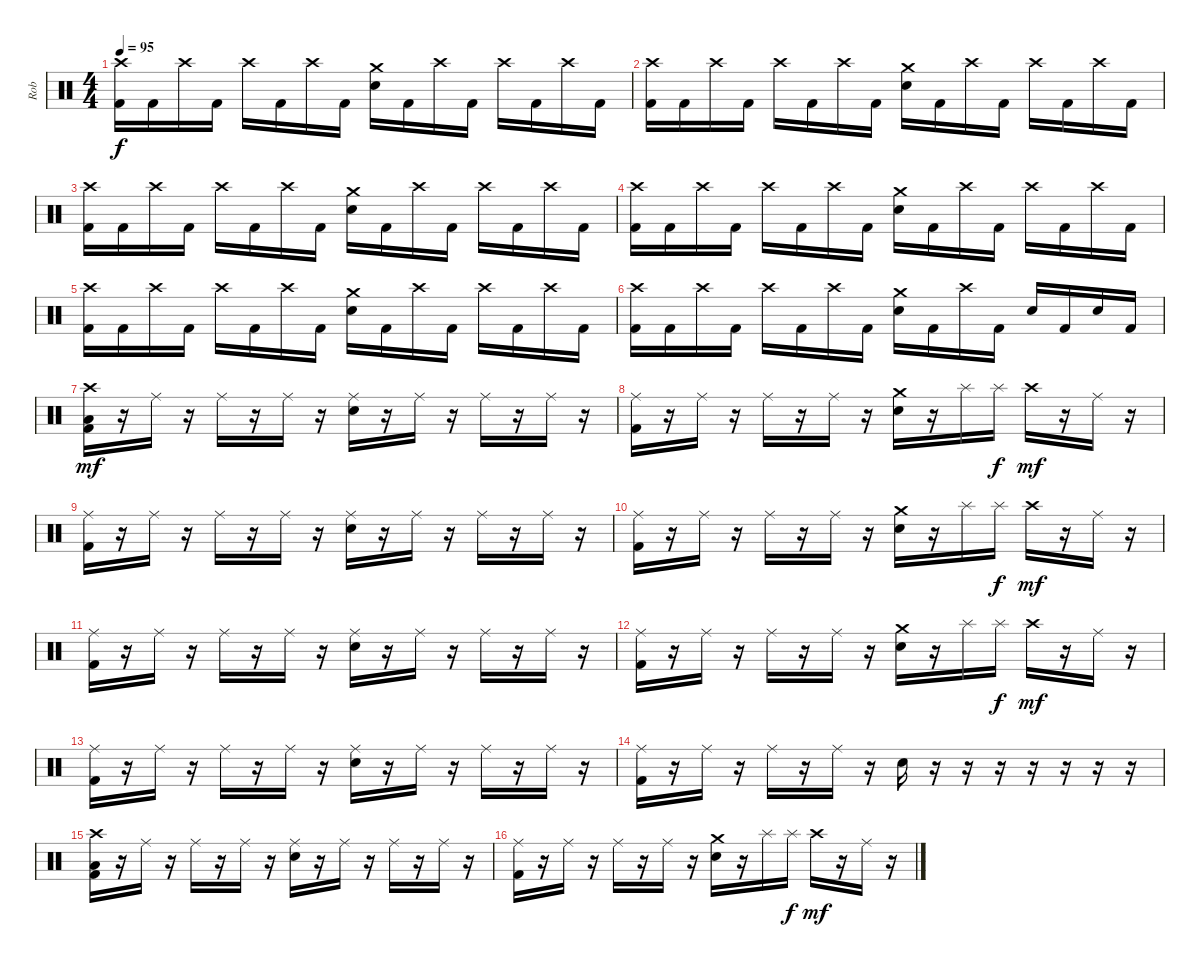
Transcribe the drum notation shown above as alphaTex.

\track ("Rob" "Rob") {instrument percussion}
\staff {score}
\articulation defaults
\ts (4 4)
\tempo 95
\clef neutral
\ks c
("Crash high (hit)" "Kick (hit) 2").16{dy f} "Kick (hit) 2".16 "Crash high (hit)".16 "Kick (hit) 2".16 "Crash high (hit)".16 "Kick (hit) 2".16 "Crash high (hit)".16 "Kick (hit) 2".16 ("Crash medium (hit)" "Electric Snare (hit)").16 "Kick (hit) 2".16 "Crash high (hit)".16 "Kick (hit) 2".16 "Crash high (hit)".16 "Kick (hit) 2".16 "Crash high (hit)".16 "Kick (hit) 2".16 |
("Crash high (hit)" "Kick (hit) 2").16 "Kick (hit) 2".16 "Crash high (hit)".16 "Kick (hit) 2".16 "Crash high (hit)".16 "Kick (hit) 2".16 "Crash high (hit)".16 "Kick (hit) 2".16 ("Crash medium (hit)" "Electric Snare (hit)").16 "Kick (hit) 2".16 "Crash high (hit)".16 "Kick (hit) 2".16 "Crash high (hit)".16 "Kick (hit) 2".16 "Crash high (hit)".16 "Kick (hit) 2".16 |
("Crash high (hit)" "Kick (hit) 2").16 "Kick (hit) 2".16 "Crash high (hit)".16 "Kick (hit) 2".16 "Crash high (hit)".16 "Kick (hit) 2".16 "Crash high (hit)".16 "Kick (hit) 2".16 ("Crash medium (hit)" "Electric Snare (hit)").16 "Kick (hit) 2".16 "Crash high (hit)".16 "Kick (hit) 2".16 "Crash high (hit)".16 "Kick (hit) 2".16 "Crash high (hit)".16 "Kick (hit) 2".16 |
("Crash high (hit)" "Kick (hit) 2").16 "Kick (hit) 2".16 "Crash high (hit)".16 "Kick (hit) 2".16 "Crash high (hit)".16 "Kick (hit) 2".16 "Crash high (hit)".16 "Kick (hit) 2".16 ("Crash medium (hit)" "Electric Snare (hit)").16 "Kick (hit) 2".16 "Crash high (hit)".16 "Kick (hit) 2".16 "Crash high (hit)".16 "Kick (hit) 2".16 "Crash high (hit)".16 "Kick (hit) 2".16 |
("Crash high (hit)" "Kick (hit) 2").16 "Kick (hit) 2".16 "Crash high (hit)".16 "Kick (hit) 2".16 "Crash high (hit)".16 "Kick (hit) 2".16 "Crash high (hit)".16 "Kick (hit) 2".16 ("Crash medium (hit)" "Electric Snare (hit)").16 "Kick (hit) 2".16 "Crash high (hit)".16 "Kick (hit) 2".16 "Crash high (hit)".16 "Kick (hit) 2".16 "Crash high (hit)".16 "Kick (hit) 2".16 |
("Crash high (hit)" "Kick (hit) 2").16 "Kick (hit) 2".16 "Crash high (hit)".16 "Kick (hit) 2".16 "Crash high (hit)".16 "Kick (hit) 2".16 "Crash high (hit)".16 "Kick (hit) 2".16 ("Crash medium (hit)" "Electric Snare (hit)").16 "Kick (hit) 2".16 "Crash high (hit)".16 "Kick (hit) 2".16 "Electric Snare (hit)".16 "Kick (hit) 2".16 "Electric Snare (hit)".16 "Kick (hit) 2".16 |
("Crash high (hit)" "Low Tom (hit)" "Kick (hit) 2").16{dy mf} r.16 "Ride (middle)".16 r.16 "Ride (middle)".16 r.16 "Ride (middle)".16 r.16 ("Ride (middle)" "Electric Snare (hit)").16 r.16 "Ride (middle)".16 r.16 "Ride (middle)".16 r.16 "Ride (middle)".16 r.16 |
("Ride (middle)" "Kick (hit) 2").16 r.16 "Ride (middle)".16 r.16 "Ride (middle)".16 r.16 "Ride (middle)".16 r.16 ("Crash medium (hit)" "Electric Snare (hit)").16 r.16 "Splash (hit)".16 "Splash (hit)".16{dy f} "Crash high (hit)".16{dy mf} r.16 "Ride (middle)".16 r.16 |
("Ride (middle)" "Kick (hit) 2").16 r.16 "Ride (middle)".16 r.16 "Ride (middle)".16 r.16 "Ride (middle)".16 r.16 ("Ride (middle)" "Electric Snare (hit)").16 r.16 "Ride (middle)".16 r.16 "Ride (middle)".16 r.16 "Ride (middle)".16 r.16 |
("Ride (middle)" "Kick (hit) 2").16 r.16 "Ride (middle)".16 r.16 "Ride (middle)".16 r.16 "Ride (middle)".16 r.16 ("Crash medium (hit)" "Electric Snare (hit)").16 r.16 "Splash (hit)".16 "Splash (hit)".16{dy f} "Crash high (hit)".16{dy mf} r.16 "Ride (middle)".16 r.16 |
("Ride (middle)" "Kick (hit) 2").16 r.16 "Ride (middle)".16 r.16 "Ride (middle)".16 r.16 "Ride (middle)".16 r.16 ("Ride (middle)" "Electric Snare (hit)").16 r.16 "Ride (middle)".16 r.16 "Ride (middle)".16 r.16 "Ride (middle)".16 r.16 |
("Ride (middle)" "Kick (hit) 2").16 r.16 "Ride (middle)".16 r.16 "Ride (middle)".16 r.16 "Ride (middle)".16 r.16 ("Crash medium (hit)" "Electric Snare (hit)").16 r.16 "Splash (hit)".16 "Splash (hit)".16{dy f} "Crash high (hit)".16{dy mf} r.16 "Ride (middle)".16 r.16 |
("Ride (middle)" "Kick (hit) 2").16 r.16 "Ride (middle)".16 r.16 "Ride (middle)".16 r.16 "Ride (middle)".16 r.16 ("Ride (middle)" "Electric Snare (hit)").16 r.16 "Ride (middle)".16 r.16 "Ride (middle)".16 r.16 "Ride (middle)".16 r.16 |
("Ride (middle)" "Kick (hit) 2").16 r.16 "Ride (middle)".16 r.16 "Ride (middle)".16 r.16 "Ride (middle)".16 r.16 "Electric Snare (hit)".16 r.16 r.16 r.16 r.16 r.16 r.16 r.16 |
("Crash high (hit)" "Low Tom (hit)" "Kick (hit) 2").16 r.16 "Ride (middle)".16 r.16 "Ride (middle)".16 r.16 "Ride (middle)".16 r.16 ("Ride (middle)" "Electric Snare (hit)").16 r.16 "Ride (middle)".16 r.16 "Ride (middle)".16 r.16 "Ride (middle)".16 r.16 |
("Ride (middle)" "Kick (hit) 2").16 r.16 "Ride (middle)".16 r.16 "Ride (middle)".16 r.16 "Ride (middle)".16 r.16 ("Crash medium (hit)" "Electric Snare (hit)").16 r.16 "Splash (hit)".16 "Splash (hit)".16{dy f} "Crash high (hit)".16{dy mf} r.16 "Ride (middle)".16 r.16
